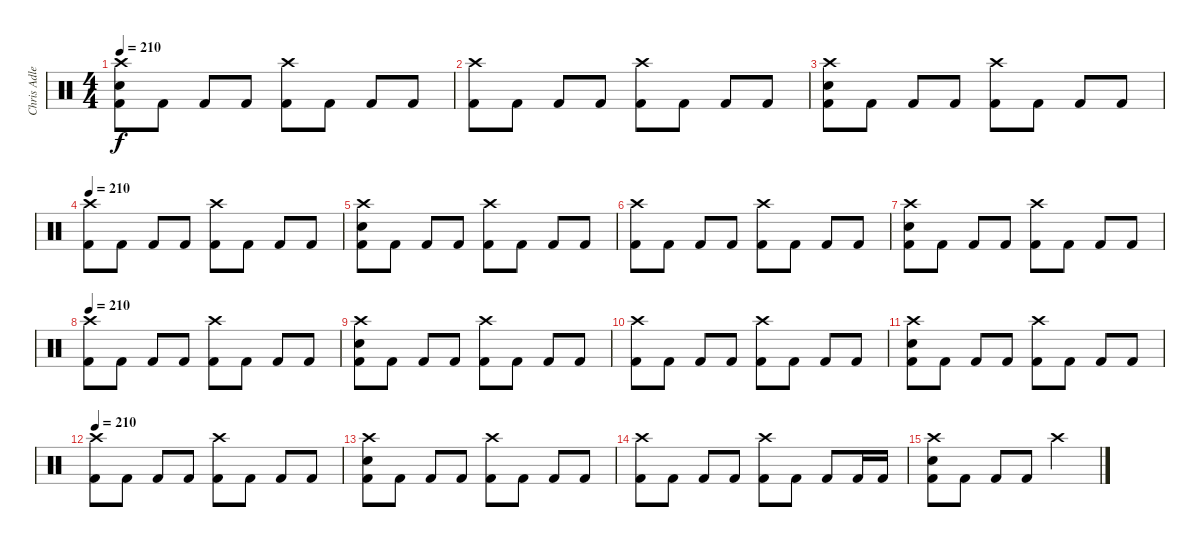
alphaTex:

\track ("Chris Adler" "Chris Adle") {instrument percussion}
\staff {score}
\articulation defaults
\ts (4 4)
\tempo 210
\clef neutral
\ks c
("Crash high (hit)" "Electric Snare (hit)" "Kick (hit) 2").8{dy f} "Kick (hit) 2".8 "Kick (hit) 2".8 "Kick (hit) 2".8 ("Crash high (hit)" "Kick (hit) 2").8 "Kick (hit) 2".8 "Kick (hit) 2".8 "Kick (hit) 2".8 |
("Crash high (hit)" "Kick (hit) 2").8 "Kick (hit) 2".8 "Kick (hit) 2".8 "Kick (hit) 2".8 ("Crash high (hit)" "Kick (hit) 2").8 "Kick (hit) 2".8 "Kick (hit) 2".8 "Kick (hit) 2".8 |
("Crash high (hit)" "Electric Snare (hit)" "Kick (hit) 2").8 "Kick (hit) 2".8 "Kick (hit) 2".8 "Kick (hit) 2".8 ("Crash high (hit)" "Kick (hit) 2").8 "Kick (hit) 2".8 "Kick (hit) 2".8 "Kick (hit) 2".8 |
\tempo 210
("Crash high (hit)" "Kick (hit) 2").8 "Kick (hit) 2".8 "Kick (hit) 2".8 "Kick (hit) 2".8 ("Crash high (hit)" "Kick (hit) 2").8 "Kick (hit) 2".8 "Kick (hit) 2".8 "Kick (hit) 2".8 |
("Crash high (hit)" "Electric Snare (hit)" "Kick (hit) 2").8 "Kick (hit) 2".8 "Kick (hit) 2".8 "Kick (hit) 2".8 ("Crash high (hit)" "Kick (hit) 2").8 "Kick (hit) 2".8 "Kick (hit) 2".8 "Kick (hit) 2".8 |
("Crash high (hit)" "Kick (hit) 2").8 "Kick (hit) 2".8 "Kick (hit) 2".8 "Kick (hit) 2".8 ("Crash high (hit)" "Kick (hit) 2").8 "Kick (hit) 2".8 "Kick (hit) 2".8 "Kick (hit) 2".8 |
("Crash high (hit)" "Electric Snare (hit)" "Kick (hit) 2").8 "Kick (hit) 2".8 "Kick (hit) 2".8 "Kick (hit) 2".8 ("Crash high (hit)" "Kick (hit) 2").8 "Kick (hit) 2".8 "Kick (hit) 2".8 "Kick (hit) 2".8 |
\tempo 210
("Crash high (hit)" "Kick (hit) 2").8 "Kick (hit) 2".8 "Kick (hit) 2".8 "Kick (hit) 2".8 ("Crash high (hit)" "Kick (hit) 2").8 "Kick (hit) 2".8 "Kick (hit) 2".8 "Kick (hit) 2".8 |
("Crash high (hit)" "Electric Snare (hit)" "Kick (hit) 2").8 "Kick (hit) 2".8 "Kick (hit) 2".8 "Kick (hit) 2".8 ("Crash high (hit)" "Kick (hit) 2").8 "Kick (hit) 2".8 "Kick (hit) 2".8 "Kick (hit) 2".8 |
("Crash high (hit)" "Kick (hit) 2").8 "Kick (hit) 2".8 "Kick (hit) 2".8 "Kick (hit) 2".8 ("Crash high (hit)" "Kick (hit) 2").8 "Kick (hit) 2".8 "Kick (hit) 2".8 "Kick (hit) 2".8 |
("Crash high (hit)" "Electric Snare (hit)" "Kick (hit) 2").8 "Kick (hit) 2".8 "Kick (hit) 2".8 "Kick (hit) 2".8 ("Crash high (hit)" "Kick (hit) 2").8 "Kick (hit) 2".8 "Kick (hit) 2".8 "Kick (hit) 2".8 |
\tempo 210
("Crash high (hit)" "Kick (hit) 2").8 "Kick (hit) 2".8 "Kick (hit) 2".8 "Kick (hit) 2".8 ("Crash high (hit)" "Kick (hit) 2").8 "Kick (hit) 2".8 "Kick (hit) 2".8 "Kick (hit) 2".8 |
("Crash high (hit)" "Electric Snare (hit)" "Kick (hit) 2").8 "Kick (hit) 2".8 "Kick (hit) 2".8 "Kick (hit) 2".8 ("Crash high (hit)" "Kick (hit) 2").8 "Kick (hit) 2".8 "Kick (hit) 2".8 "Kick (hit) 2".8 |
("Crash high (hit)" "Kick (hit) 2").8 "Kick (hit) 2".8 "Kick (hit) 2".8 "Kick (hit) 2".8 ("Crash high (hit)" "Kick (hit) 2").8 "Kick (hit) 2".8 "Kick (hit) 2".8 "Kick (hit) 2".16 "Kick (hit) 2".16 |
("Crash high (hit)" "Electric Snare (hit)" "Kick (hit) 2").8 "Kick (hit) 2".8 "Kick (hit) 2".8 "Kick (hit) 2".8 "Crash high (hit)".2
